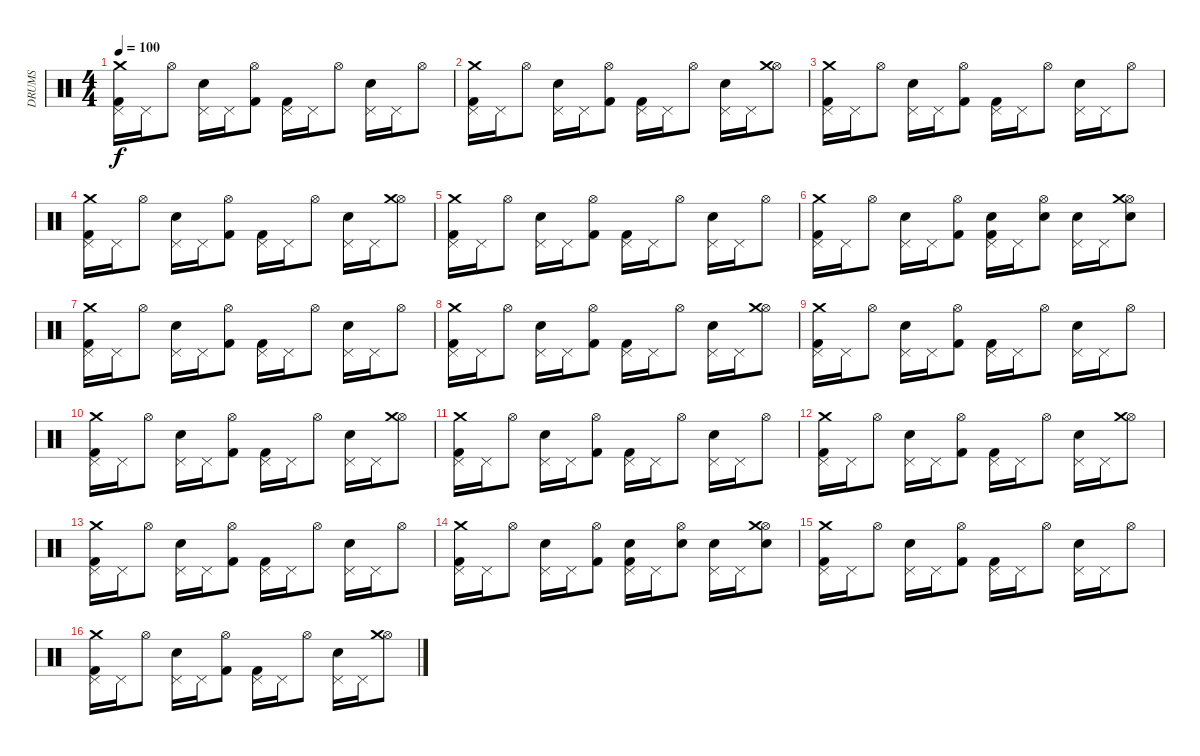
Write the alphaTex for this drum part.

\track ("DRUMS" "DRUMS") {instrument percussion}
\staff {score}
\articulation defaults
\ts (4 4)
\tempo 100
\clef neutral
\ks c
("Kick (hit) 2" "Pedal Hi-Hat (hit)" "Crash medium (hit)").16{dy f} "Pedal Hi-Hat (hit)".16 "Hi-Hat (open)".8 ("Electric Snare (hit)" "Pedal Hi-Hat (hit)").16 "Pedal Hi-Hat (hit)".16 ("Kick (hit) 2" "Hi-Hat (open)").8 ("Kick (hit) 2" "Pedal Hi-Hat (hit)").16 "Pedal Hi-Hat (hit)".16 "Hi-Hat (open)".8 ("Electric Snare (hit)" "Pedal Hi-Hat (hit)").16 "Pedal Hi-Hat (hit)".16 "Hi-Hat (open)".8 |
("Kick (hit) 2" "Pedal Hi-Hat (hit)" "Crash medium (hit)").16 "Pedal Hi-Hat (hit)".16 "Hi-Hat (open)".8 ("Electric Snare (hit)" "Pedal Hi-Hat (hit)").16 "Pedal Hi-Hat (hit)".16 ("Kick (hit) 2" "Hi-Hat (open)").8 ("Kick (hit) 2" "Pedal Hi-Hat (hit)").16 "Pedal Hi-Hat (hit)".16 "Hi-Hat (open)".8 ("Electric Snare (hit)" "Pedal Hi-Hat (hit)").16 "Pedal Hi-Hat (hit)".16 ("Hi-Hat (open)" "Crash medium (hit)").8 |
("Kick (hit) 2" "Pedal Hi-Hat (hit)" "Crash medium (hit)").16 "Pedal Hi-Hat (hit)".16 "Hi-Hat (open)".8 ("Electric Snare (hit)" "Pedal Hi-Hat (hit)").16 "Pedal Hi-Hat (hit)".16 ("Kick (hit) 2" "Hi-Hat (open)").8 ("Kick (hit) 2" "Pedal Hi-Hat (hit)").16 "Pedal Hi-Hat (hit)".16 "Hi-Hat (open)".8 ("Electric Snare (hit)" "Pedal Hi-Hat (hit)").16 "Pedal Hi-Hat (hit)".16 "Hi-Hat (open)".8 |
("Kick (hit) 2" "Pedal Hi-Hat (hit)" "Crash medium (hit)").16 "Pedal Hi-Hat (hit)".16 "Hi-Hat (open)".8 ("Electric Snare (hit)" "Pedal Hi-Hat (hit)").16 "Pedal Hi-Hat (hit)".16 ("Kick (hit) 2" "Hi-Hat (open)").8 ("Kick (hit) 2" "Pedal Hi-Hat (hit)").16 "Pedal Hi-Hat (hit)".16 "Hi-Hat (open)".8 ("Electric Snare (hit)" "Pedal Hi-Hat (hit)").16 "Pedal Hi-Hat (hit)".16 ("Hi-Hat (open)" "Crash medium (hit)").8 |
("Kick (hit) 2" "Pedal Hi-Hat (hit)" "Crash medium (hit)").16 "Pedal Hi-Hat (hit)".16 "Hi-Hat (open)".8 ("Electric Snare (hit)" "Pedal Hi-Hat (hit)").16 "Pedal Hi-Hat (hit)".16 ("Kick (hit) 2" "Hi-Hat (open)").8 ("Kick (hit) 2" "Pedal Hi-Hat (hit)").16 "Pedal Hi-Hat (hit)".16 "Hi-Hat (open)".8 ("Electric Snare (hit)" "Pedal Hi-Hat (hit)").16 "Pedal Hi-Hat (hit)".16 "Hi-Hat (open)".8 |
("Kick (hit) 2" "Pedal Hi-Hat (hit)" "Crash medium (hit)").16 "Pedal Hi-Hat (hit)".16 "Hi-Hat (open)".8 ("Electric Snare (hit)" "Pedal Hi-Hat (hit)").16 "Pedal Hi-Hat (hit)".16 ("Kick (hit) 2" "Hi-Hat (open)").8 ("Kick (hit) 2" "Electric Snare (hit)" "Pedal Hi-Hat (hit)").16 "Pedal Hi-Hat (hit)".16 ("Electric Snare (hit)" "Hi-Hat (open)").8 ("Electric Snare (hit)" "Pedal Hi-Hat (hit)").16 "Pedal Hi-Hat (hit)".16 ("Electric Snare (hit)" "Hi-Hat (open)" "Crash medium (hit)").8 |
("Kick (hit) 2" "Pedal Hi-Hat (hit)" "Crash medium (hit)").16 "Pedal Hi-Hat (hit)".16 "Hi-Hat (open)".8 ("Electric Snare (hit)" "Pedal Hi-Hat (hit)").16 "Pedal Hi-Hat (hit)".16 ("Kick (hit) 2" "Hi-Hat (open)").8 ("Kick (hit) 2" "Pedal Hi-Hat (hit)").16 "Pedal Hi-Hat (hit)".16 "Hi-Hat (open)".8 ("Electric Snare (hit)" "Pedal Hi-Hat (hit)").16 "Pedal Hi-Hat (hit)".16 "Hi-Hat (open)".8 |
("Kick (hit) 2" "Pedal Hi-Hat (hit)" "Crash medium (hit)").16 "Pedal Hi-Hat (hit)".16 "Hi-Hat (open)".8 ("Electric Snare (hit)" "Pedal Hi-Hat (hit)").16 "Pedal Hi-Hat (hit)".16 ("Kick (hit) 2" "Hi-Hat (open)").8 ("Kick (hit) 2" "Pedal Hi-Hat (hit)").16 "Pedal Hi-Hat (hit)".16 "Hi-Hat (open)".8 ("Electric Snare (hit)" "Pedal Hi-Hat (hit)").16 "Pedal Hi-Hat (hit)".16 ("Hi-Hat (open)" "Crash medium (hit)").8 |
("Kick (hit) 2" "Pedal Hi-Hat (hit)" "Crash medium (hit)").16 "Pedal Hi-Hat (hit)".16 "Hi-Hat (open)".8 ("Electric Snare (hit)" "Pedal Hi-Hat (hit)").16 "Pedal Hi-Hat (hit)".16 ("Kick (hit) 2" "Hi-Hat (open)").8 ("Kick (hit) 2" "Pedal Hi-Hat (hit)").16 "Pedal Hi-Hat (hit)".16 "Hi-Hat (open)".8 ("Electric Snare (hit)" "Pedal Hi-Hat (hit)").16 "Pedal Hi-Hat (hit)".16 "Hi-Hat (open)".8 |
("Kick (hit) 2" "Pedal Hi-Hat (hit)" "Crash medium (hit)").16 "Pedal Hi-Hat (hit)".16 "Hi-Hat (open)".8 ("Electric Snare (hit)" "Pedal Hi-Hat (hit)").16 "Pedal Hi-Hat (hit)".16 ("Kick (hit) 2" "Hi-Hat (open)").8 ("Kick (hit) 2" "Pedal Hi-Hat (hit)").16 "Pedal Hi-Hat (hit)".16 "Hi-Hat (open)".8 ("Electric Snare (hit)" "Pedal Hi-Hat (hit)").16 "Pedal Hi-Hat (hit)".16 ("Hi-Hat (open)" "Crash medium (hit)").8 |
("Kick (hit) 2" "Pedal Hi-Hat (hit)" "Crash medium (hit)").16 "Pedal Hi-Hat (hit)".16 "Hi-Hat (open)".8 ("Electric Snare (hit)" "Pedal Hi-Hat (hit)").16 "Pedal Hi-Hat (hit)".16 ("Kick (hit) 2" "Hi-Hat (open)").8 ("Kick (hit) 2" "Pedal Hi-Hat (hit)").16 "Pedal Hi-Hat (hit)".16 "Hi-Hat (open)".8 ("Electric Snare (hit)" "Pedal Hi-Hat (hit)").16 "Pedal Hi-Hat (hit)".16 "Hi-Hat (open)".8 |
("Kick (hit) 2" "Pedal Hi-Hat (hit)" "Crash medium (hit)").16 "Pedal Hi-Hat (hit)".16 "Hi-Hat (open)".8 ("Electric Snare (hit)" "Pedal Hi-Hat (hit)").16 "Pedal Hi-Hat (hit)".16 ("Kick (hit) 2" "Hi-Hat (open)").8 ("Kick (hit) 2" "Pedal Hi-Hat (hit)").16 "Pedal Hi-Hat (hit)".16 "Hi-Hat (open)".8 ("Electric Snare (hit)" "Pedal Hi-Hat (hit)").16 "Pedal Hi-Hat (hit)".16 ("Hi-Hat (open)" "Crash medium (hit)").8 |
("Kick (hit) 2" "Pedal Hi-Hat (hit)" "Crash medium (hit)").16 "Pedal Hi-Hat (hit)".16 "Hi-Hat (open)".8 ("Electric Snare (hit)" "Pedal Hi-Hat (hit)").16 "Pedal Hi-Hat (hit)".16 ("Kick (hit) 2" "Hi-Hat (open)").8 ("Kick (hit) 2" "Pedal Hi-Hat (hit)").16 "Pedal Hi-Hat (hit)".16 "Hi-Hat (open)".8 ("Electric Snare (hit)" "Pedal Hi-Hat (hit)").16 "Pedal Hi-Hat (hit)".16 "Hi-Hat (open)".8 |
("Kick (hit) 2" "Pedal Hi-Hat (hit)" "Crash medium (hit)").16 "Pedal Hi-Hat (hit)".16 "Hi-Hat (open)".8 ("Electric Snare (hit)" "Pedal Hi-Hat (hit)").16 "Pedal Hi-Hat (hit)".16 ("Kick (hit) 2" "Hi-Hat (open)").8 ("Kick (hit) 2" "Electric Snare (hit)" "Pedal Hi-Hat (hit)").16 "Pedal Hi-Hat (hit)".16 ("Electric Snare (hit)" "Hi-Hat (open)").8 ("Electric Snare (hit)" "Pedal Hi-Hat (hit)").16 "Pedal Hi-Hat (hit)".16 ("Electric Snare (hit)" "Hi-Hat (open)" "Crash medium (hit)").8 |
("Kick (hit) 2" "Pedal Hi-Hat (hit)" "Crash medium (hit)").16 "Pedal Hi-Hat (hit)".16 "Hi-Hat (open)".8 ("Electric Snare (hit)" "Pedal Hi-Hat (hit)").16 "Pedal Hi-Hat (hit)".16 ("Kick (hit) 2" "Hi-Hat (open)").8 ("Kick (hit) 2" "Pedal Hi-Hat (hit)").16 "Pedal Hi-Hat (hit)".16 "Hi-Hat (open)".8 ("Electric Snare (hit)" "Pedal Hi-Hat (hit)").16 "Pedal Hi-Hat (hit)".16 "Hi-Hat (open)".8 |
("Kick (hit) 2" "Pedal Hi-Hat (hit)" "Crash medium (hit)").16 "Pedal Hi-Hat (hit)".16 "Hi-Hat (open)".8 ("Electric Snare (hit)" "Pedal Hi-Hat (hit)").16 "Pedal Hi-Hat (hit)".16 ("Kick (hit) 2" "Hi-Hat (open)").8 ("Kick (hit) 2" "Pedal Hi-Hat (hit)").16 "Pedal Hi-Hat (hit)".16 "Hi-Hat (open)".8 ("Electric Snare (hit)" "Pedal Hi-Hat (hit)").16 "Pedal Hi-Hat (hit)".16 ("Hi-Hat (open)" "Crash medium (hit)").8
